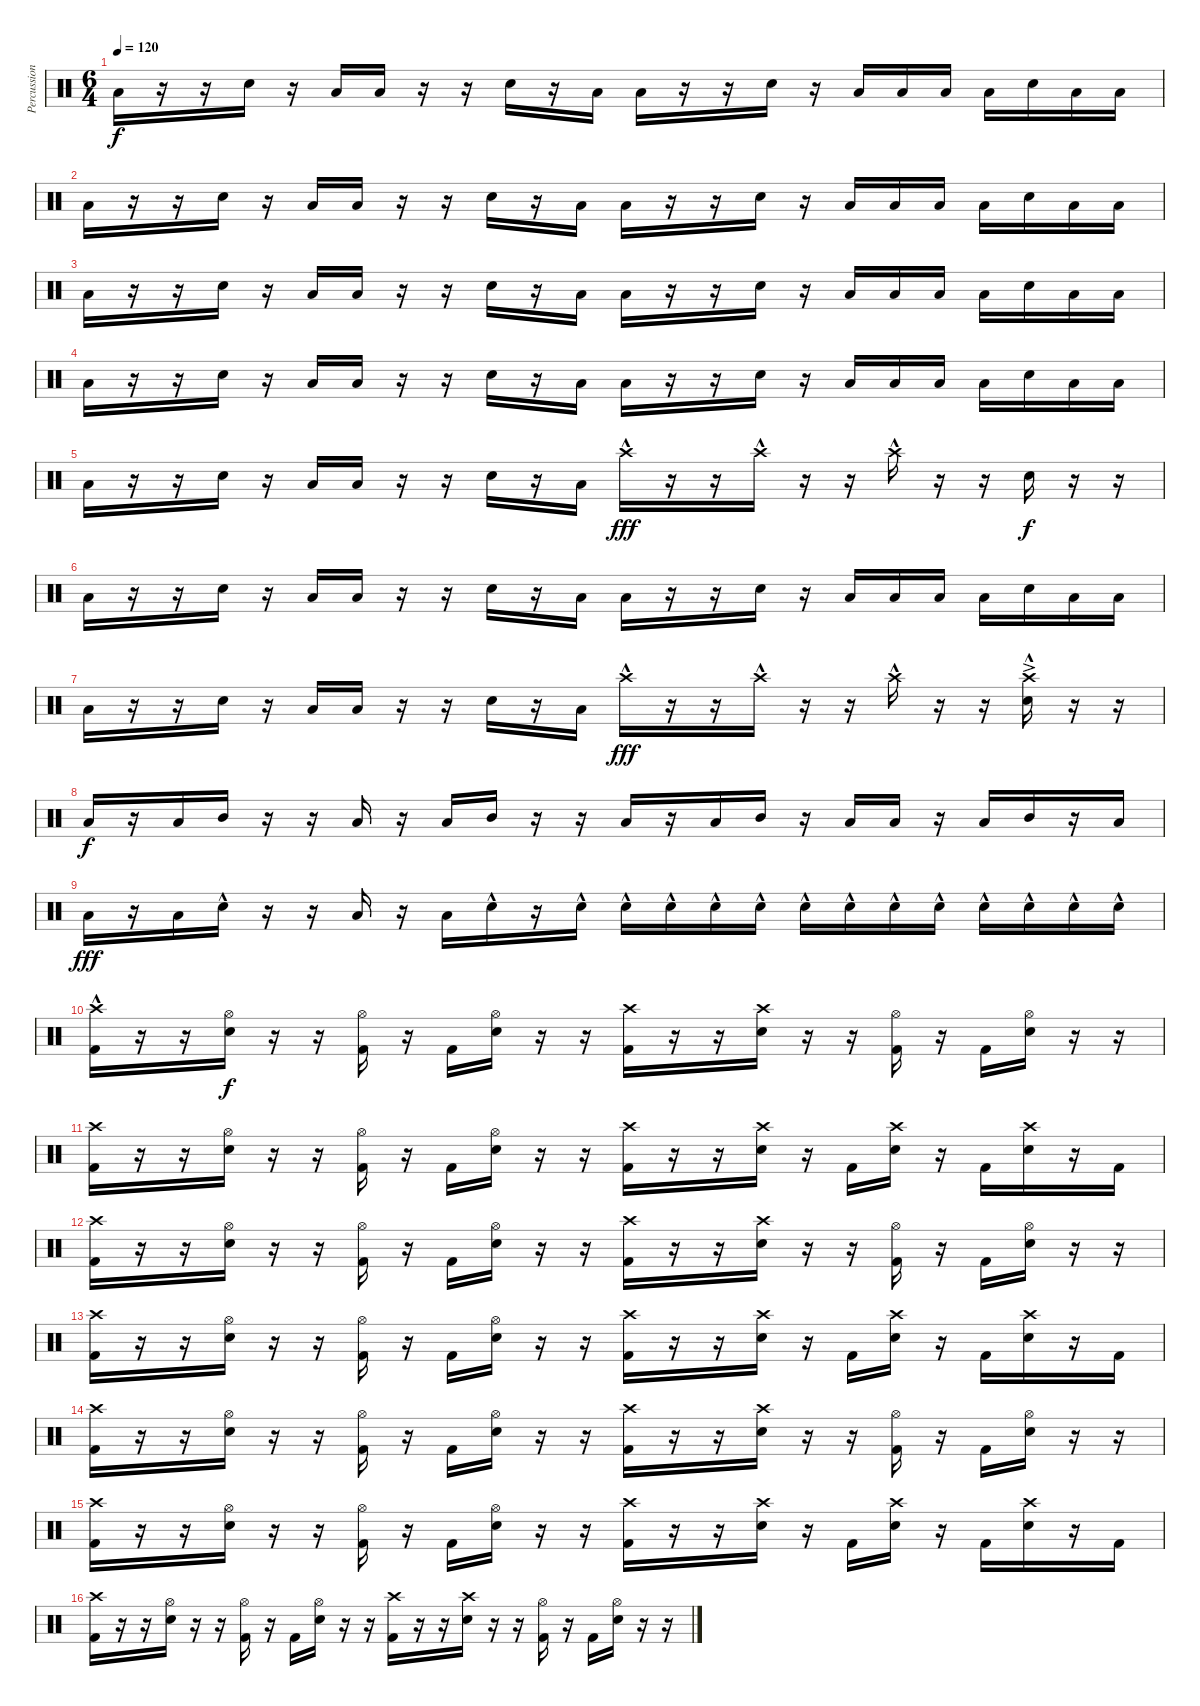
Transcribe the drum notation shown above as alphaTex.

\track ("Percussion" "Percussion") {instrument percussion}
\staff {score}
\articulation defaults
\ts (6 4)
\tempo 120
\clef neutral
\ks c "Low Floor Tom (hit)".16{dy f}
r.16 r.16 "Electric Snare (hit)".16 r.16 "Low Floor Tom (hit)".16 "Low Floor Tom (hit)".16 r.16 r.16 "Electric Snare (hit)".16 r.16 "Low Floor Tom (hit)".16 "Low Floor Tom (hit)".16 r.16 r.16 "Electric Snare (hit)".16 r.16 "Low Floor Tom (hit)".16 "Low Floor Tom (hit)".16 "Low Floor Tom (hit)".16 "Low Floor Tom (hit)".16 "Electric Snare (hit)".16 "Low Floor Tom (hit)".16 "Low Floor Tom (hit)".16 |
"Low Floor Tom (hit)".16 r.16 r.16 "Electric Snare (hit)".16 r.16 "Low Floor Tom (hit)".16 "Low Floor Tom (hit)".16 r.16 r.16 "Electric Snare (hit)".16 r.16 "Low Floor Tom (hit)".16 "Low Floor Tom (hit)".16 r.16 r.16 "Electric Snare (hit)".16 r.16 "Low Floor Tom (hit)".16 "Low Floor Tom (hit)".16 "Low Floor Tom (hit)".16 "Low Floor Tom (hit)".16 "Electric Snare (hit)".16 "Low Floor Tom (hit)".16 "Low Floor Tom (hit)".16 |
"Low Floor Tom (hit)".16 r.16 r.16 "Electric Snare (hit)".16 r.16 "Low Floor Tom (hit)".16 "Low Floor Tom (hit)".16 r.16 r.16 "Electric Snare (hit)".16 r.16 "Low Floor Tom (hit)".16 "Low Floor Tom (hit)".16 r.16 r.16 "Electric Snare (hit)".16 r.16 "Low Floor Tom (hit)".16 "Low Floor Tom (hit)".16 "Low Floor Tom (hit)".16 "Low Floor Tom (hit)".16 "Electric Snare (hit)".16 "Low Floor Tom (hit)".16 "Low Floor Tom (hit)".16 |
"Low Floor Tom (hit)".16 r.16 r.16 "Electric Snare (hit)".16 r.16 "Low Floor Tom (hit)".16 "Low Floor Tom (hit)".16 r.16 r.16 "Electric Snare (hit)".16 r.16 "Low Floor Tom (hit)".16 "Low Floor Tom (hit)".16 r.16 r.16 "Electric Snare (hit)".16 r.16 "Low Floor Tom (hit)".16 "Low Floor Tom (hit)".16 "Low Floor Tom (hit)".16 "Low Floor Tom (hit)".16 "Electric Snare (hit)".16 "Low Floor Tom (hit)".16 "Low Floor Tom (hit)".16 |
"Low Floor Tom (hit)".16 r.16 r.16 "Electric Snare (hit)".16 r.16 "Low Floor Tom (hit)".16 "Low Floor Tom (hit)".16 r.16 r.16 "Electric Snare (hit)".16 r.16 "Low Floor Tom (hit)".16 "Crash high (hit)"{hac}.16{dy fff} r.16 r.16 "Crash high (hit)"{hac}.16 r.16 r.16 "Crash high (hit)"{hac}.16 r.16 r.16 "Electric Snare (hit)".16{dy f} r.16 r.16 |
"Low Floor Tom (hit)".16 r.16 r.16 "Electric Snare (hit)".16 r.16 "Low Floor Tom (hit)".16 "Low Floor Tom (hit)".16 r.16 r.16 "Electric Snare (hit)".16 r.16 "Low Floor Tom (hit)".16 "Low Floor Tom (hit)".16 r.16 r.16 "Electric Snare (hit)".16 r.16 "Low Floor Tom (hit)".16 "Low Floor Tom (hit)".16 "Low Floor Tom (hit)".16 "Low Floor Tom (hit)".16 "Electric Snare (hit)".16 "Low Floor Tom (hit)".16 "Low Floor Tom (hit)".16 |
"Low Floor Tom (hit)".16 r.16 r.16 "Electric Snare (hit)".16 r.16 "Low Floor Tom (hit)".16 "Low Floor Tom (hit)".16 r.16 r.16 "Electric Snare (hit)".16 r.16 "Low Floor Tom (hit)".16 "Crash high (hit)"{hac}.16{dy fff} r.16 r.16 "Crash high (hit)"{hac}.16 r.16 r.16 "Crash high (hit)"{hac}.16 r.16 r.16 ("Electric Snare (hit)"{ac} "Crash high (hit)"{hac}).16 r.16 r.16 |
"Low Floor Tom (hit)".16{dy f} r.16 "Low Floor Tom (hit)".16 "Mid Tom (hit)".16 r.16 r.16 "Low Floor Tom (hit)".16 r.16 "Low Floor Tom (hit)".16 "Mid Tom (hit)".16 r.16 r.16 "Low Floor Tom (hit)".16 r.16 "Low Floor Tom (hit)".16 "Mid Tom (hit)".16 r.16 "Low Floor Tom (hit)".16 "Low Floor Tom (hit)".16 r.16 "Low Floor Tom (hit)".16 "Mid Tom (hit)".16 r.16 "Low Floor Tom (hit)".16 |
"Low Floor Tom (hit)".16{dy fff} r.16 "Low Floor Tom (hit)".16 "Electric Snare (hit)"{hac}.16 r.16 r.16 "Low Floor Tom (hit)".16 r.16 "Low Floor Tom (hit)".16 "Electric Snare (hit)"{hac}.16 r.16 "Electric Snare (hit)"{hac}.16 "Electric Snare (hit)"{hac}.16 "Electric Snare (hit)"{hac}.16 "Electric Snare (hit)"{hac}.16 "Electric Snare (hit)"{hac}.16 "Electric Snare (hit)"{hac}.16 "Electric Snare (hit)"{hac}.16 "Electric Snare (hit)"{hac}.16 "Electric Snare (hit)"{hac}.16 "Electric Snare (hit)"{hac}.16 "Electric Snare (hit)"{hac}.16 "Electric Snare (hit)"{hac}.16 "Electric Snare (hit)"{hac}.16 |
("Kick (hit) 2" "Crash high (hit)"{hac}).16 r.16 r.16 ("Electric Snare (hit)" "Hi-Hat (open)").16{dy f} r.16 r.16 ("Kick (hit) 2" "Hi-Hat (open)").16 r.16 "Kick (hit) 2".16 ("Electric Snare (hit)" "Hi-Hat (open)").16 r.16 r.16 ("Kick (hit) 2" "Crash high (hit)").16 r.16 r.16 ("Electric Snare (hit)" "Crash high (hit)").16 r.16 r.16 ("Kick (hit) 2" "Hi-Hat (open)").16 r.16 "Kick (hit) 2".16 ("Electric Snare (hit)" "Hi-Hat (open)").16 r.16 r.16 |
("Kick (hit) 2" "Crash high (hit)").16 r.16 r.16 ("Electric Snare (hit)" "Hi-Hat (open)").16 r.16 r.16 ("Kick (hit) 2" "Hi-Hat (open)").16 r.16 "Kick (hit) 2".16 ("Electric Snare (hit)" "Hi-Hat (open)").16 r.16 r.16 ("Kick (hit) 2" "Crash high (hit)").16 r.16 r.16 ("Electric Snare (hit)" "Crash high (hit)").16 r.16 "Kick (hit) 2".16 ("Electric Snare (hit)" "Crash high (hit)").16 r.16 "Kick (hit) 2".16 ("Electric Snare (hit)" "Crash high (hit)").16 r.16 "Kick (hit) 2".16 |
("Kick (hit) 2" "Crash high (hit)").16 r.16 r.16 ("Electric Snare (hit)" "Hi-Hat (open)").16 r.16 r.16 ("Kick (hit) 2" "Hi-Hat (open)").16 r.16 "Kick (hit) 2".16 ("Electric Snare (hit)" "Hi-Hat (open)").16 r.16 r.16 ("Kick (hit) 2" "Crash high (hit)").16 r.16 r.16 ("Electric Snare (hit)" "Crash high (hit)").16 r.16 r.16 ("Kick (hit) 2" "Hi-Hat (open)").16 r.16 "Kick (hit) 2".16 ("Electric Snare (hit)" "Hi-Hat (open)").16 r.16 r.16 |
("Kick (hit) 2" "Crash high (hit)").16 r.16 r.16 ("Electric Snare (hit)" "Hi-Hat (open)").16 r.16 r.16 ("Kick (hit) 2" "Hi-Hat (open)").16 r.16 "Kick (hit) 2".16 ("Electric Snare (hit)" "Hi-Hat (open)").16 r.16 r.16 ("Kick (hit) 2" "Crash high (hit)").16 r.16 r.16 ("Electric Snare (hit)" "Crash high (hit)").16 r.16 "Kick (hit) 2".16 ("Electric Snare (hit)" "Crash high (hit)").16 r.16 "Kick (hit) 2".16 ("Electric Snare (hit)" "Crash high (hit)").16 r.16 "Kick (hit) 2".16 |
("Kick (hit) 2" "Crash high (hit)").16 r.16 r.16 ("Electric Snare (hit)" "Hi-Hat (open)").16 r.16 r.16 ("Kick (hit) 2" "Hi-Hat (open)").16 r.16 "Kick (hit) 2".16 ("Electric Snare (hit)" "Hi-Hat (open)").16 r.16 r.16 ("Kick (hit) 2" "Crash high (hit)").16 r.16 r.16 ("Electric Snare (hit)" "Crash high (hit)").16 r.16 r.16 ("Kick (hit) 2" "Hi-Hat (open)").16 r.16 "Kick (hit) 2".16 ("Electric Snare (hit)" "Hi-Hat (open)").16 r.16 r.16 |
("Kick (hit) 2" "Crash high (hit)").16 r.16 r.16 ("Electric Snare (hit)" "Hi-Hat (open)").16 r.16 r.16 ("Kick (hit) 2" "Hi-Hat (open)").16 r.16 "Kick (hit) 2".16 ("Electric Snare (hit)" "Hi-Hat (open)").16 r.16 r.16 ("Kick (hit) 2" "Crash high (hit)").16 r.16 r.16 ("Electric Snare (hit)" "Crash high (hit)").16 r.16 "Kick (hit) 2".16 ("Electric Snare (hit)" "Crash high (hit)").16 r.16 "Kick (hit) 2".16 ("Electric Snare (hit)" "Crash high (hit)").16 r.16 "Kick (hit) 2".16 |
("Kick (hit) 2" "Crash high (hit)").16 r.16 r.16 ("Electric Snare (hit)" "Hi-Hat (open)").16 r.16 r.16 ("Kick (hit) 2" "Hi-Hat (open)").16 r.16 "Kick (hit) 2".16 ("Electric Snare (hit)" "Hi-Hat (open)").16 r.16 r.16 ("Kick (hit) 2" "Crash high (hit)").16 r.16 r.16 ("Electric Snare (hit)" "Crash high (hit)").16 r.16 r.16 ("Kick (hit) 2" "Hi-Hat (open)").16 r.16 "Kick (hit) 2".16 ("Electric Snare (hit)" "Hi-Hat (open)").16 r.16 r.16
